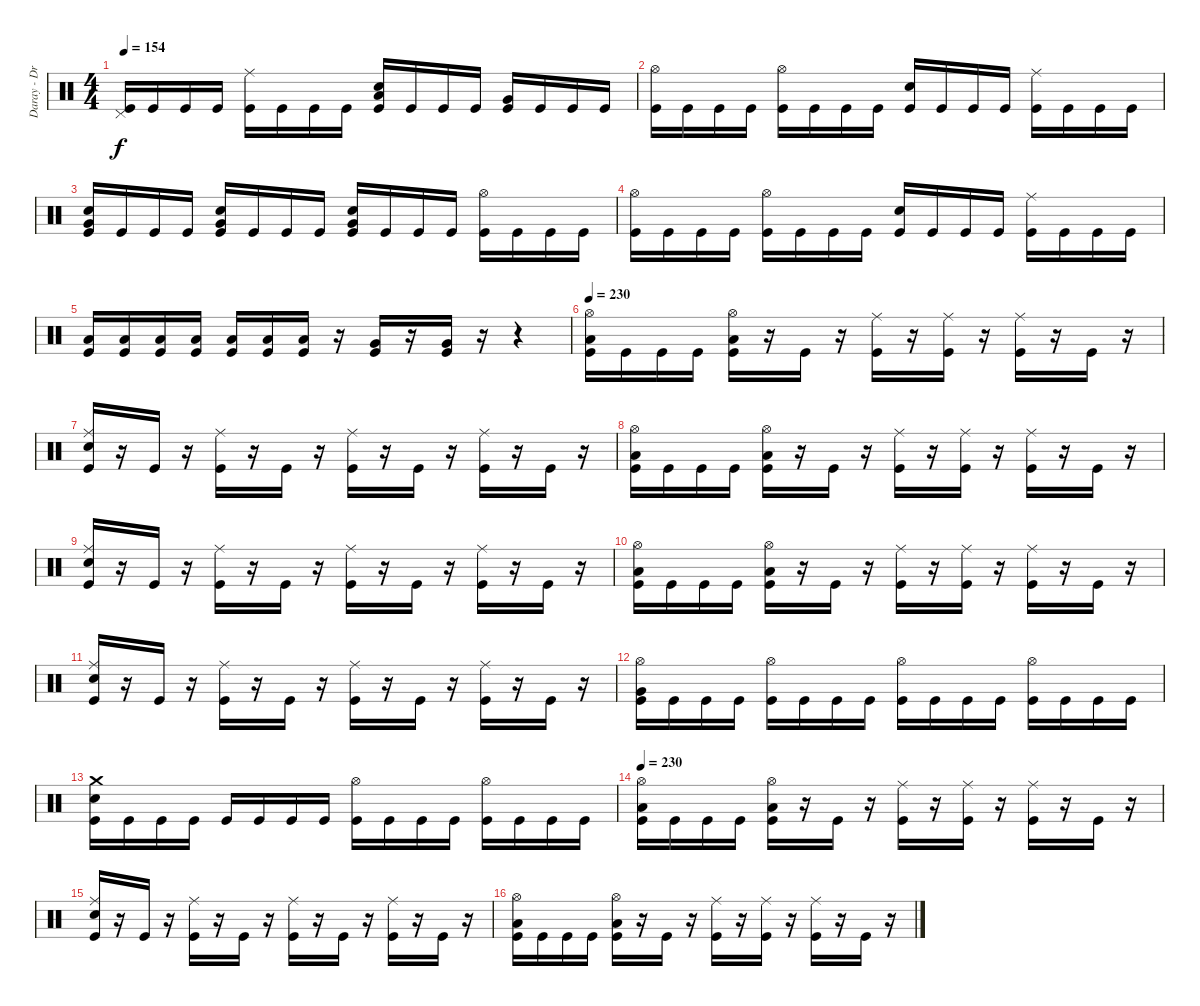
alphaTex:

\track ("Daray - Drums" "Daray - Dr") {instrument percussion}
\staff {score}
\articulation defaults
\ts (4 4)
\tempo 154
\clef neutral
\ks c
("Pedal Hi-Hat (hit)" "Kick (hit)").16{dy f} "Kick (hit)".16 "Kick (hit)".16 "Kick (hit)".16 ("Ride (middle)" "Kick (hit)").16 "Kick (hit)".16 "Kick (hit)".16 "Kick (hit)".16 ("Electric Snare (hit)" "Low Floor Tom (hit)" "Kick (hit)").16 "Kick (hit)".16 "Kick (hit)".16 "Kick (hit)".16 ("Very Low Tom (hit)" "Kick (hit)").16 "Kick (hit)".16 "Kick (hit)".16 "Kick (hit)".16 |
("Hi-Hat (open)" "Kick (hit)").16 "Kick (hit)".16 "Kick (hit)".16 "Kick (hit)".16 ("Hi-Hat (open)" "Kick (hit)").16 "Kick (hit)".16 "Kick (hit)".16 "Kick (hit)".16 ("Electric Snare (hit)" "Kick (hit)").16 "Kick (hit)".16 "Kick (hit)".16 "Kick (hit)".16 ("Ride (middle)" "Kick (hit)").16 "Kick (hit)".16 "Kick (hit)".16 "Kick (hit)".16 |
("Electric Snare (hit)" "Very Low Tom (hit)" "Kick (hit)").16 "Kick (hit)".16 "Kick (hit)".16 "Kick (hit)".16 ("Electric Snare (hit)" "Very Low Tom (hit)" "Kick (hit)").16 "Kick (hit)".16 "Kick (hit)".16 "Kick (hit)".16 ("Electric Snare (hit)" "Very Low Tom (hit)" "Kick (hit)").16 "Kick (hit)".16 "Kick (hit)".16 "Kick (hit)".16 ("Hi-Hat (open)" "Kick (hit)").16 "Kick (hit)".16 "Kick (hit)".16 "Kick (hit)".16 |
("Hi-Hat (open)" "Kick (hit)").16 "Kick (hit)".16 "Kick (hit)".16 "Kick (hit)".16 ("Hi-Hat (open)" "Kick (hit)").16 "Kick (hit)".16 "Kick (hit)".16 "Kick (hit)".16 ("Electric Snare (hit)" "Kick (hit)").16 "Kick (hit)".16 "Kick (hit)".16 "Kick (hit)".16 ("Ride (middle)" "Kick (hit)").16 "Kick (hit)".16 "Kick (hit)".16 "Kick (hit)".16 |
("Low Tom (hit)" "Kick (hit)").16 ("Low Tom (hit)" "Kick (hit)").16 ("Low Tom (hit)" "Kick (hit)").16 ("Low Tom (hit)" "Kick (hit)").16 ("Low Tom (hit)" "Kick (hit)").16 ("Low Tom (hit)" "Kick (hit)").16 ("Low Floor Tom (hit)" "Kick (hit)").16 r.16 ("Very Low Tom (hit)" "Kick (hit)").16 r.16 ("Very Low Tom (hit)" "Kick (hit)").16 r.16 r.4 |
\tempo 230
("Hi-Hat (open)" "Low Floor Tom (hit)" "Kick (hit)").16 "Kick (hit)".16 "Kick (hit)".16 "Kick (hit)".16 ("Hi-Hat (open)" "Low Floor Tom (hit)" "Kick (hit)").16 r.16 "Kick (hit)".16 r.16 ("Ride (middle)" "Kick (hit)").16 r.16 ("Ride (middle)" "Kick (hit)").16 r.16 ("Ride (middle)" "Kick (hit)").16 r.16 "Kick (hit)".16 r.16 |
("Ride (middle)" "Electric Snare (hit)" "Kick (hit)").16 r.16 "Kick (hit)".16 r.16 ("Ride (middle)" "Kick (hit)").16 r.16 "Kick (hit)".16 r.16 ("Ride (middle)" "Kick (hit)").16 r.16 "Kick (hit)".16 r.16 ("Ride (middle)" "Kick (hit)").16 r.16 "Kick (hit)".16 r.16 |
("Hi-Hat (open)" "Low Floor Tom (hit)" "Kick (hit)").16 "Kick (hit)".16 "Kick (hit)".16 "Kick (hit)".16 ("Hi-Hat (open)" "Low Floor Tom (hit)" "Kick (hit)").16 r.16 "Kick (hit)".16 r.16 ("Ride (middle)" "Kick (hit)").16 r.16 ("Ride (middle)" "Kick (hit)").16 r.16 ("Ride (middle)" "Kick (hit)").16 r.16 "Kick (hit)".16 r.16 |
("Ride (middle)" "Electric Snare (hit)" "Kick (hit)").16 r.16 "Kick (hit)".16 r.16 ("Ride (middle)" "Kick (hit)").16 r.16 "Kick (hit)".16 r.16 ("Ride (middle)" "Kick (hit)").16 r.16 "Kick (hit)".16 r.16 ("Ride (middle)" "Kick (hit)").16 r.16 "Kick (hit)".16 r.16 |
("Hi-Hat (open)" "Low Floor Tom (hit)" "Kick (hit)").16 "Kick (hit)".16 "Kick (hit)".16 "Kick (hit)".16 ("Hi-Hat (open)" "Low Floor Tom (hit)" "Kick (hit)").16 r.16 "Kick (hit)".16 r.16 ("Ride (middle)" "Kick (hit)").16 r.16 ("Ride (middle)" "Kick (hit)").16 r.16 ("Ride (middle)" "Kick (hit)").16 r.16 "Kick (hit)".16 r.16 |
("Ride (middle)" "Electric Snare (hit)" "Kick (hit)").16 r.16 "Kick (hit)".16 r.16 ("Ride (middle)" "Kick (hit)").16 r.16 "Kick (hit)".16 r.16 ("Ride (middle)" "Kick (hit)").16 r.16 "Kick (hit)".16 r.16 ("Ride (middle)" "Kick (hit)").16 r.16 "Kick (hit)".16 r.16 |
("Hi-Hat (open)" "Very Low Tom (hit)" "Kick (hit)").16 "Kick (hit)".16 "Kick (hit)".16 "Kick (hit)".16 ("Hi-Hat (open)" "Kick (hit)").16 "Kick (hit)".16 "Kick (hit)".16 "Kick (hit)".16 ("Hi-Hat (open)" "Kick (hit)").16 "Kick (hit)".16 "Kick (hit)".16 "Kick (hit)".16 ("Hi-Hat (open)" "Kick (hit)").16 "Kick (hit)".16 "Kick (hit)".16 "Kick (hit)".16 |
("Crash medium (hit)" "Electric Snare (hit)" "Kick (hit)").16 "Kick (hit)".16 "Kick (hit)".16 "Kick (hit)".16 "Kick (hit)".16 "Kick (hit)".16 "Kick (hit)".16 "Kick (hit)".16 ("Hi-Hat (open)" "Kick (hit)").16 "Kick (hit)".16 "Kick (hit)".16 "Kick (hit)".16 ("Hi-Hat (open)" "Kick (hit)").16 "Kick (hit)".16 "Kick (hit)".16 "Kick (hit)".16 |
\tempo 230
("Hi-Hat (open)" "Low Floor Tom (hit)" "Kick (hit)").16 "Kick (hit)".16 "Kick (hit)".16 "Kick (hit)".16 ("Hi-Hat (open)" "Low Floor Tom (hit)" "Kick (hit)").16 r.16 "Kick (hit)".16 r.16 ("Ride (middle)" "Kick (hit)").16 r.16 ("Ride (middle)" "Kick (hit)").16 r.16 ("Ride (middle)" "Kick (hit)").16 r.16 "Kick (hit)".16 r.16 |
("Ride (middle)" "Electric Snare (hit)" "Kick (hit)").16 r.16 "Kick (hit)".16 r.16 ("Ride (middle)" "Kick (hit)").16 r.16 "Kick (hit)".16 r.16 ("Ride (middle)" "Kick (hit)").16 r.16 "Kick (hit)".16 r.16 ("Ride (middle)" "Kick (hit)").16 r.16 "Kick (hit)".16 r.16 |
("Hi-Hat (open)" "Low Floor Tom (hit)" "Kick (hit)").16 "Kick (hit)".16 "Kick (hit)".16 "Kick (hit)".16 ("Hi-Hat (open)" "Low Floor Tom (hit)" "Kick (hit)").16 r.16 "Kick (hit)".16 r.16 ("Ride (middle)" "Kick (hit)").16 r.16 ("Ride (middle)" "Kick (hit)").16 r.16 ("Ride (middle)" "Kick (hit)").16 r.16 "Kick (hit)".16 r.16
